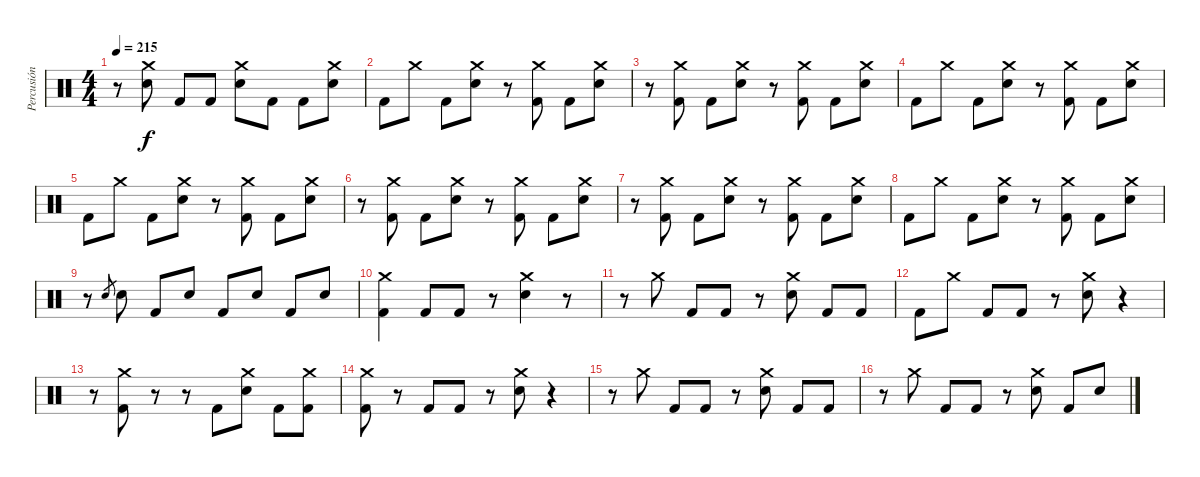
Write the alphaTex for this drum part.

\track ("Percusión" "Percusión") {instrument percussion}
\staff {score}
\articulation defaults
\ts (4 4)
\tempo 215
\clef neutral
\ks c
r.8{dy f} ("Crash medium (hit)" "Electric Snare (hit)").8 "Kick (hit) 2".8 "Kick (hit) 2".8 ("Crash medium (hit)" "Electric Snare (hit)").8 "Kick (hit) 2".8 "Kick (hit) 2".8 ("Crash medium (hit)" "Electric Snare (hit)").8 |
"Kick (hit) 2".8 "Crash medium (hit)".8 "Kick (hit) 2".8 ("Crash medium (hit)" "Electric Snare (hit)").8 r.8 ("Crash medium (hit)" "Kick (hit) 2").8 "Kick (hit) 2".8 ("Crash medium (hit)" "Electric Snare (hit)").8 |
r.8 ("Crash medium (hit)" "Kick (hit) 2").8 "Kick (hit) 2".8 ("Crash medium (hit)" "Electric Snare (hit)").8 r.8 ("Crash medium (hit)" "Kick (hit) 2").8 "Kick (hit) 2".8 ("Crash medium (hit)" "Electric Snare (hit)").8 |
"Kick (hit) 2".8 "Crash medium (hit)".8 "Kick (hit) 2".8 ("Crash medium (hit)" "Electric Snare (hit)").8 r.8 ("Crash medium (hit)" "Kick (hit) 2").8 "Kick (hit) 2".8 ("Crash medium (hit)" "Electric Snare (hit)").8 |
"Kick (hit) 2".8 "Crash medium (hit)".8 "Kick (hit) 2".8 ("Crash medium (hit)" "Electric Snare (hit)").8 r.8 ("Crash medium (hit)" "Kick (hit) 2").8 "Kick (hit) 2".8 ("Crash medium (hit)" "Electric Snare (hit)").8 |
r.8 ("Crash medium (hit)" "Kick (hit) 2").8 "Kick (hit) 2".8 ("Crash medium (hit)" "Electric Snare (hit)").8 r.8 ("Crash medium (hit)" "Kick (hit) 2").8 "Kick (hit) 2".8 ("Crash medium (hit)" "Electric Snare (hit)").8 |
r.8 ("Crash medium (hit)" "Kick (hit) 2").8 "Kick (hit) 2".8 ("Crash medium (hit)" "Electric Snare (hit)").8 r.8 ("Crash medium (hit)" "Kick (hit) 2").8 "Kick (hit) 2".8 ("Crash medium (hit)" "Electric Snare (hit)").8 |
"Kick (hit) 2".8 "Crash medium (hit)".8 "Kick (hit) 2".8 ("Crash medium (hit)" "Electric Snare (hit)").8 r.8 ("Crash medium (hit)" "Kick (hit) 2").8 "Kick (hit) 2".8 ("Crash medium (hit)" "Electric Snare (hit)").8 |
r.8 "Electric Snare (hit)".8{gr} "Electric Snare (hit)".8 "Kick (hit) 2".8 "Electric Snare (hit)".8 "Kick (hit) 2".8 "Electric Snare (hit)".8 "Kick (hit) 2".8 "Electric Snare (hit)".8 |
("Crash medium (hit)" "Kick (hit) 2").4 "Kick (hit) 2".8 "Kick (hit) 2".8 r.8 ("Crash medium (hit)" "Electric Snare (hit)").4 r.8 |
r.8 "Crash medium (hit)".8 "Kick (hit) 2".8 "Kick (hit) 2".8 r.8 ("Crash medium (hit)" "Electric Snare (hit)").8 "Kick (hit) 2".8 "Kick (hit) 2".8 |
"Kick (hit) 2".8 "Crash medium (hit)".8 "Kick (hit) 2".8 "Kick (hit) 2".8 r.8 ("Crash medium (hit)" "Electric Snare (hit)").8 r.4 |
r.8 ("Crash medium (hit)" "Kick (hit) 2").8 r.8 r.8 "Kick (hit) 2".8 ("Crash medium (hit)" "Electric Snare (hit)").8 "Kick (hit) 2".8 ("Crash medium (hit)" "Kick (hit) 2").8 |
("Crash medium (hit)" "Kick (hit) 2").8 r.8 "Kick (hit) 2".8 "Kick (hit) 2".8 r.8 ("Crash medium (hit)" "Electric Snare (hit)").8 r.4 |
r.8 "Crash medium (hit)".8 "Kick (hit) 2".8 "Kick (hit) 2".8 r.8 ("Crash medium (hit)" "Electric Snare (hit)").8 "Kick (hit) 2".8 "Kick (hit) 2".8 |
r.8 "Crash medium (hit)".8 "Kick (hit) 2".8 "Kick (hit) 2".8 r.8 ("Crash medium (hit)" "Electric Snare (hit)").8 "Kick (hit) 2".8 "Electric Snare (hit)".8
